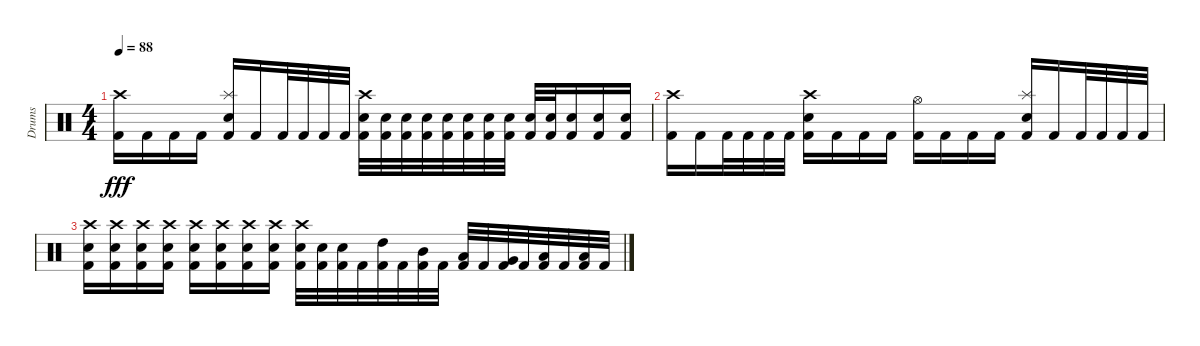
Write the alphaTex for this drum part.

\track ("Drums" "Drums") {instrument percussion}
\staff {score}
\articulation defaults
\ts (4 4)
\tempo 88
\clef neutral
\ks c
("Crash high (hit)" "Kick (hit) 2").16{dy fff} "Kick (hit) 2".16 "Kick (hit) 2".16 "Kick (hit) 2".16 ("Splash (hit)" "Snare (hit) 2" "Kick (hit) 2").16 "Kick (hit) 2".16 "Kick (hit) 2".32 "Kick (hit) 2".32 "Kick (hit) 2".32 "Kick (hit) 2".32 ("Crash high (hit)" "Snare (hit) 2" "Kick (hit) 2").32 ("Snare (hit) 2" "Kick (hit) 2").32 ("Snare (hit) 2" "Kick (hit) 2").32 ("Snare (hit) 2" "Kick (hit) 2").32 ("Snare (hit) 2" "Kick (hit) 2").32 ("Snare (hit) 2" "Kick (hit) 2").32 ("Snare (hit) 2" "Kick (hit) 2").32 ("Snare (hit) 2" "Kick (hit) 2").32 ("Snare (hit) 2" "Kick (hit) 2").32 ("Snare (hit) 2" "Kick (hit) 2").32 ("Snare (hit) 2" "Kick (hit) 2").16 ("Snare (hit) 2" "Kick (hit) 2").16 ("Snare (hit) 2" "Kick (hit) 2").16 |
("Crash high (hit)" "Kick (hit) 2").16 "Kick (hit) 2".16 "Kick (hit) 2".32 "Kick (hit) 2".32 "Kick (hit) 2".32 "Kick (hit) 2".32 ("Crash high (hit)" "Snare (hit) 2" "Kick (hit) 2").16 "Kick (hit) 2".16 "Kick (hit) 2".16 "Kick (hit) 2".16 ("Hi-Hat (open)" "Kick (hit) 2").16 "Kick (hit) 2".16 "Kick (hit) 2".16 "Kick (hit) 2".16 ("Splash (hit)" "Snare (hit) 2" "Kick (hit) 2").16 "Kick (hit) 2".16 "Kick (hit) 2".32 "Kick (hit) 2".32 "Kick (hit) 2".32 "Kick (hit) 2".32 |
("Crash high (hit)" "Snare (hit) 2" "Kick (hit) 2").16 ("Crash high (hit)" "Snare (hit) 2" "Kick (hit) 2").16 ("Crash high (hit)" "Snare (hit) 2" "Kick (hit) 2").16 ("Crash high (hit)" "Snare (hit) 2" "Kick (hit) 2").16 ("Crash high (hit)" "Snare (hit) 2" "Kick (hit) 2").16 ("Crash high (hit)" "Snare (hit) 2" "Kick (hit) 2").16 ("Crash high (hit)" "Snare (hit) 2" "Kick (hit) 2").16 ("Crash high (hit)" "Snare (hit) 2" "Kick (hit) 2").16 ("Crash high (hit)" "Snare (hit) 2" "Kick (hit) 2").32 ("Snare (hit) 2" "Kick (hit) 2").32 ("Snare (hit) 2" "Kick (hit) 2").32 "Kick (hit) 2".32 ("High Tom (hit)" "Kick (hit) 2").32 "Kick (hit) 2".32 ("Mid Tom (hit)" "Kick (hit) 2").32 "Kick (hit) 2".32 ("Low Tom (hit)" "Kick (hit) 2").32 "Kick (hit) 2".32 ("Very Low Tom (hit)" "Kick (hit) 2").32 "Kick (hit) 2".32 ("Low Floor Tom (hit)" "Kick (hit) 2").32 "Kick (hit) 2".32 ("Low Floor Tom (hit)" "Kick (hit) 2").32 "Kick (hit) 2".32
